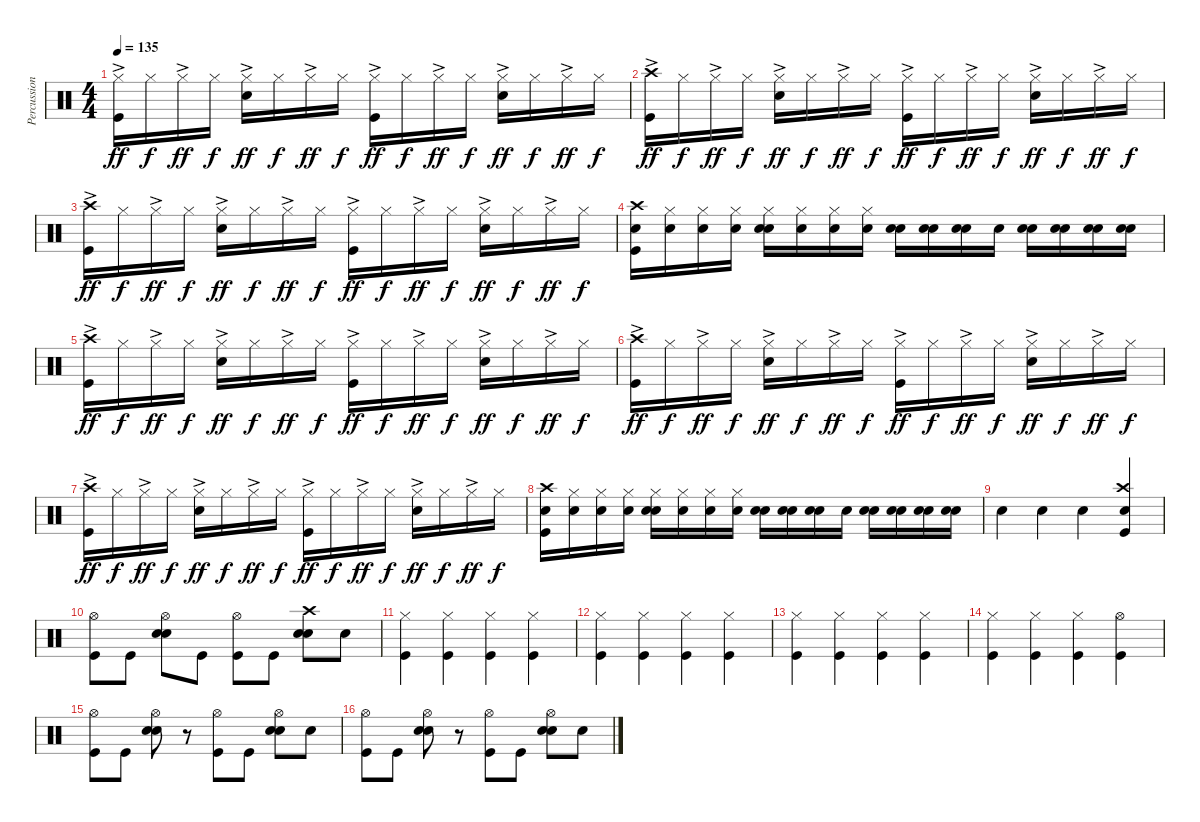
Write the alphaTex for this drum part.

\track ("Percussion" "Percussion") {instrument percussion}
\staff {score}
\articulation defaults
\ts (4 4)
\tempo 135
\clef neutral
\ks c
("Kick (hit)" "Hi-Hat (closed)"{ac}).16{dy ff} "Hi-Hat (closed)".16{dy f} "Hi-Hat (closed)"{ac}.16{dy ff} "Hi-Hat (closed)".16{dy f} ("Electric Snare (hit)" "Hi-Hat (closed)"{ac}).16{dy ff} "Hi-Hat (closed)".16{dy f} "Hi-Hat (closed)"{ac}.16{dy ff} "Hi-Hat (closed)".16{dy f} ("Kick (hit)" "Hi-Hat (closed)"{ac}).16{dy ff} "Hi-Hat (closed)".16{dy f} "Hi-Hat (closed)"{ac}.16{dy ff} "Hi-Hat (closed)".16{dy f} ("Electric Snare (hit)" "Hi-Hat (closed)"{ac}).16{dy ff} "Hi-Hat (closed)".16{dy f} "Hi-Hat (closed)"{ac}.16{dy ff} "Hi-Hat (closed)".16{dy f} |
("Kick (hit)" "Crash high (hit)"{ac}).16{dy ff} "Hi-Hat (closed)".16{dy f} "Hi-Hat (closed)"{ac}.16{dy ff} "Hi-Hat (closed)".16{dy f} ("Electric Snare (hit)" "Hi-Hat (closed)"{ac}).16{dy ff} "Hi-Hat (closed)".16{dy f} "Hi-Hat (closed)"{ac}.16{dy ff} "Hi-Hat (closed)".16{dy f} ("Kick (hit)" "Hi-Hat (closed)"{ac}).16{dy ff} "Hi-Hat (closed)".16{dy f} "Hi-Hat (closed)"{ac}.16{dy ff} "Hi-Hat (closed)".16{dy f} ("Electric Snare (hit)" "Hi-Hat (closed)"{ac}).16{dy ff} "Hi-Hat (closed)".16{dy f} "Hi-Hat (closed)"{ac}.16{dy ff} "Hi-Hat (closed)".16{dy f} |
("Kick (hit)" "Crash high (hit)"{ac}).16{dy ff} "Hi-Hat (closed)".16{dy f} "Hi-Hat (closed)"{ac}.16{dy ff} "Hi-Hat (closed)".16{dy f} ("Electric Snare (hit)" "Hi-Hat (closed)"{ac}).16{dy ff} "Hi-Hat (closed)".16{dy f} "Hi-Hat (closed)"{ac}.16{dy ff} "Hi-Hat (closed)".16{dy f} ("Kick (hit)" "Hi-Hat (closed)"{ac}).16{dy ff} "Hi-Hat (closed)".16{dy f} "Hi-Hat (closed)"{ac}.16{dy ff} "Hi-Hat (closed)".16{dy f} ("Electric Snare (hit)" "Hi-Hat (closed)"{ac}).16{dy ff} "Hi-Hat (closed)".16{dy f} "Hi-Hat (closed)"{ac}.16{dy ff} "Hi-Hat (closed)".16{dy f} |
("Snare (hit)" "Kick (hit)" "Crash high (hit)").16 ("Snare (hit)" "Hi-Hat (closed)").16 ("Snare (hit)" "Hi-Hat (closed)").16 ("Snare (hit)" "Hi-Hat (closed)").16 ("Snare (hit)" "Electric Snare (hit)" "Hi-Hat (closed)").16 ("Snare (hit)" "Hi-Hat (closed)").16 ("Snare (hit)" "Hi-Hat (closed)").16 ("Snare (hit)" "Hi-Hat (closed)").16 ("Snare (hit)" "Electric Snare (hit)").16 ("Snare (hit)" "Electric Snare (hit)").16 ("Snare (hit)" "Electric Snare (hit)").16 "Snare (hit)".16 ("Snare (hit)" "Electric Snare (hit)").16 ("Snare (hit)" "Electric Snare (hit)").16 ("Snare (hit)" "Electric Snare (hit)").16 ("Snare (hit)" "Electric Snare (hit)").16 |
("Kick (hit)" "Crash high (hit)"{ac}).16{dy ff} "Hi-Hat (closed)".16{dy f} "Hi-Hat (closed)"{ac}.16{dy ff} "Hi-Hat (closed)".16{dy f} ("Electric Snare (hit)" "Hi-Hat (closed)"{ac}).16{dy ff} "Hi-Hat (closed)".16{dy f} "Hi-Hat (closed)"{ac}.16{dy ff} "Hi-Hat (closed)".16{dy f} ("Kick (hit)" "Hi-Hat (closed)"{ac}).16{dy ff} "Hi-Hat (closed)".16{dy f} "Hi-Hat (closed)"{ac}.16{dy ff} "Hi-Hat (closed)".16{dy f} ("Electric Snare (hit)" "Hi-Hat (closed)"{ac}).16{dy ff} "Hi-Hat (closed)".16{dy f} "Hi-Hat (closed)"{ac}.16{dy ff} "Hi-Hat (closed)".16{dy f} |
("Kick (hit)" "Crash high (hit)"{ac}).16{dy ff} "Hi-Hat (closed)".16{dy f} "Hi-Hat (closed)"{ac}.16{dy ff} "Hi-Hat (closed)".16{dy f} ("Electric Snare (hit)" "Hi-Hat (closed)"{ac}).16{dy ff} "Hi-Hat (closed)".16{dy f} "Hi-Hat (closed)"{ac}.16{dy ff} "Hi-Hat (closed)".16{dy f} ("Kick (hit)" "Hi-Hat (closed)"{ac}).16{dy ff} "Hi-Hat (closed)".16{dy f} "Hi-Hat (closed)"{ac}.16{dy ff} "Hi-Hat (closed)".16{dy f} ("Electric Snare (hit)" "Hi-Hat (closed)"{ac}).16{dy ff} "Hi-Hat (closed)".16{dy f} "Hi-Hat (closed)"{ac}.16{dy ff} "Hi-Hat (closed)".16{dy f} |
("Kick (hit)" "Crash high (hit)"{ac}).16{dy ff} "Hi-Hat (closed)".16{dy f} "Hi-Hat (closed)"{ac}.16{dy ff} "Hi-Hat (closed)".16{dy f} ("Electric Snare (hit)" "Hi-Hat (closed)"{ac}).16{dy ff} "Hi-Hat (closed)".16{dy f} "Hi-Hat (closed)"{ac}.16{dy ff} "Hi-Hat (closed)".16{dy f} ("Kick (hit)" "Hi-Hat (closed)"{ac}).16{dy ff} "Hi-Hat (closed)".16{dy f} "Hi-Hat (closed)"{ac}.16{dy ff} "Hi-Hat (closed)".16{dy f} ("Electric Snare (hit)" "Hi-Hat (closed)"{ac}).16{dy ff} "Hi-Hat (closed)".16{dy f} "Hi-Hat (closed)"{ac}.16{dy ff} "Hi-Hat (closed)".16{dy f} |
("Snare (hit)" "Kick (hit)" "Crash high (hit)").16 ("Snare (hit)" "Hi-Hat (closed)").16 ("Snare (hit)" "Hi-Hat (closed)").16 ("Snare (hit)" "Hi-Hat (closed)").16 ("Snare (hit)" "Electric Snare (hit)" "Hi-Hat (closed)").16 ("Snare (hit)" "Hi-Hat (closed)").16 ("Snare (hit)" "Hi-Hat (closed)").16 ("Snare (hit)" "Hi-Hat (closed)").16 ("Snare (hit)" "Electric Snare (hit)").16 ("Snare (hit)" "Electric Snare (hit)").16 ("Snare (hit)" "Electric Snare (hit)").16 "Snare (hit)".16 ("Snare (hit)" "Electric Snare (hit)").16 ("Snare (hit)" "Electric Snare (hit)").16 ("Snare (hit)" "Electric Snare (hit)").16 ("Snare (hit)" "Electric Snare (hit)").16 |
"Snare (hit)".4 "Snare (hit)".4 "Snare (hit)".4 ("Snare (hit)" "Kick (hit)" "Crash high (hit)").4 |
("Kick (hit)" "Hi-Hat (open)").8 "Kick (hit)".8 ("Snare (hit)" "Electric Snare (hit)" "Hi-Hat (open)").8 "Kick (hit)".8 ("Kick (hit)" "Hi-Hat (open)").8 "Kick (hit)".8 ("Snare (hit)" "Electric Snare (hit)" "Crash high (hit)").8 "Snare (hit)".8 |
("Kick (hit)" "Hi-Hat (closed)").4 ("Kick (hit)" "Hi-Hat (closed)").4 ("Kick (hit)" "Hi-Hat (closed)").4 ("Kick (hit)" "Hi-Hat (closed)").4 |
("Kick (hit)" "Hi-Hat (closed)").4 ("Kick (hit)" "Hi-Hat (closed)").4 ("Kick (hit)" "Hi-Hat (closed)").4 ("Kick (hit)" "Hi-Hat (closed)").4 |
("Kick (hit)" "Hi-Hat (closed)").4 ("Kick (hit)" "Hi-Hat (closed)").4 ("Kick (hit)" "Hi-Hat (closed)").4 ("Kick (hit)" "Hi-Hat (closed)").4 |
("Kick (hit)" "Hi-Hat (closed)").4 ("Kick (hit)" "Hi-Hat (closed)").4 ("Kick (hit)" "Hi-Hat (closed)").4 ("Kick (hit)" "Hi-Hat (open)").4 |
("Kick (hit)" "Hi-Hat (open)").8 "Kick (hit)".8 ("Snare (hit)" "Electric Snare (hit)" "Hi-Hat (open)").8 r.8 ("Kick (hit)" "Hi-Hat (open)").8 "Kick (hit)".8 ("Snare (hit)" "Electric Snare (hit)" "Hi-Hat (open)").8 "Snare (hit)".8 |
("Kick (hit)" "Hi-Hat (open)").8 "Kick (hit)".8 ("Snare (hit)" "Electric Snare (hit)" "Hi-Hat (open)").8 r.8 ("Kick (hit)" "Hi-Hat (open)").8 "Kick (hit)".8 ("Snare (hit)" "Electric Snare (hit)" "Hi-Hat (open)").8 "Snare (hit)".8
